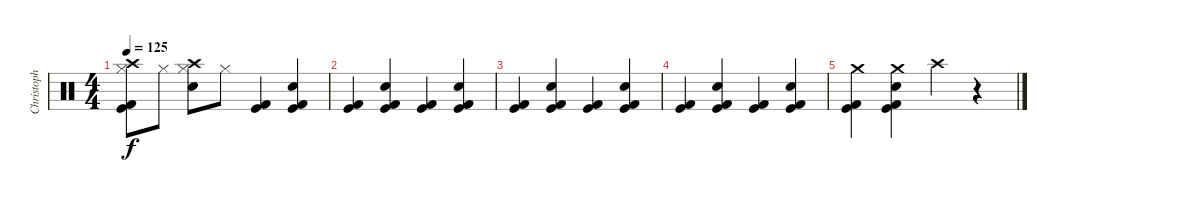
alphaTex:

\track ("Christoph (Drums)" "Christoph ") {instrument percussion}
\staff {score}
\articulation defaults
\ts (4 4)
\tempo 125
\clef neutral
\ks c
("Crash high (hit)" "Hi-Hat (closed)" "Kick (hit) 2" "Kick (hit)").8{dy f} "Hi-Hat (closed)".8 ("Crash high (hit)" "Hi-Hat (closed)" "Snare (hit) 2").8 "Hi-Hat (closed)".8 ("Kick (hit) 2" "Kick (hit)").4 ("Snare (hit) 2" "Kick (hit) 2" "Kick (hit)").4 |
("Kick (hit) 2" "Kick (hit)").4 ("Snare (hit) 2" "Kick (hit) 2" "Kick (hit)").4 ("Kick (hit) 2" "Kick (hit)").4 ("Snare (hit) 2" "Kick (hit) 2" "Kick (hit)").4 |
("Kick (hit) 2" "Kick (hit)").4 ("Snare (hit) 2" "Kick (hit) 2" "Kick (hit)").4 ("Kick (hit) 2" "Kick (hit)").4 ("Snare (hit) 2" "Kick (hit) 2" "Kick (hit)").4 |
("Kick (hit) 2" "Kick (hit)").4 ("Snare (hit) 2" "Kick (hit) 2" "Kick (hit)").4 ("Kick (hit) 2" "Kick (hit)").4 ("Snare (hit) 2" "Kick (hit) 2" "Kick (hit)").4 |
("Crash medium (hit)" "Kick (hit) 2" "Kick (hit)").4 ("Crash medium (hit)" "Snare (hit) 2" "Kick (hit) 2" "Kick (hit)").4 "Crash high (hit)".4 r.4
